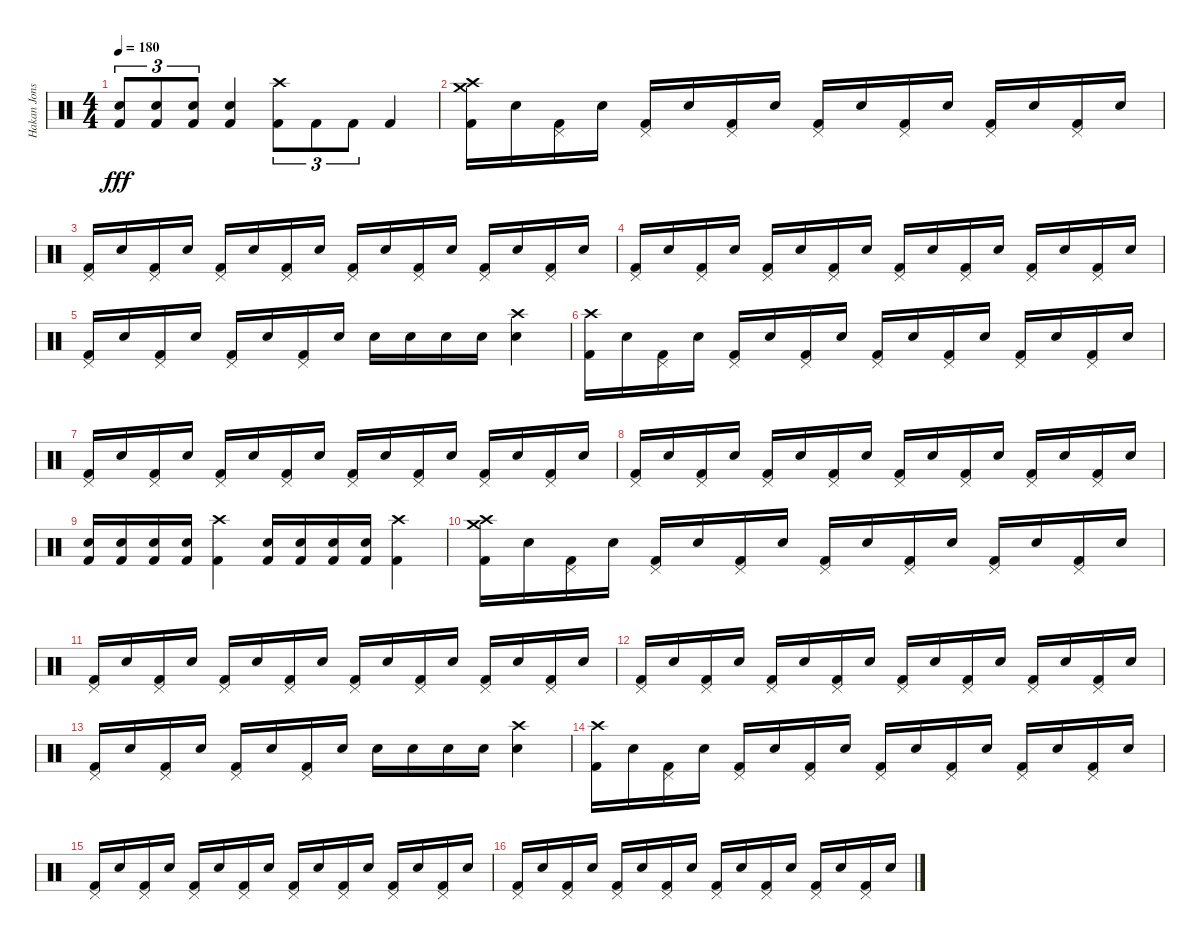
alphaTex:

\track ("Hakan Jonsson" "Hakan Jons") {instrument percussion}
\staff {score}
\articulation defaults
\ts (4 4)
\tempo 180
\clef neutral
\ks c
("Electric Snare (hit)" "Kick (hit) 2").8{tu (3 2) dy fff} ("Electric Snare (hit)" "Kick (hit) 2").8{tu (3 2)} ("Electric Snare (hit)" "Kick (hit) 2").8{tu (3 2)} ("Electric Snare (hit)" "Kick (hit) 2").4 ("Crash high (hit)" "Kick (hit) 2").8{tu (3 2)} "Kick (hit) 2".8{tu (3 2)} "Kick (hit) 2".8{tu (3 2)} "Kick (hit) 2".4 |
("Crash high (hit)" "Crash medium (hit)" "Kick (hit) 2").16 "Electric Snare (hit)".16 ("Pedal Hi-Hat (hit)" "Kick (hit) 2").16 "Electric Snare (hit)".16 ("Pedal Hi-Hat (hit)" "Kick (hit) 2").16 "Electric Snare (hit)".16 ("Pedal Hi-Hat (hit)" "Kick (hit) 2").16 "Electric Snare (hit)".16 ("Pedal Hi-Hat (hit)" "Kick (hit) 2").16 "Electric Snare (hit)".16 ("Pedal Hi-Hat (hit)" "Kick (hit) 2").16 "Electric Snare (hit)".16 ("Pedal Hi-Hat (hit)" "Kick (hit) 2").16 "Electric Snare (hit)".16 ("Pedal Hi-Hat (hit)" "Kick (hit) 2").16 "Electric Snare (hit)".16 |
("Pedal Hi-Hat (hit)" "Kick (hit) 2").16 "Electric Snare (hit)".16 ("Pedal Hi-Hat (hit)" "Kick (hit) 2").16 "Electric Snare (hit)".16 ("Pedal Hi-Hat (hit)" "Kick (hit) 2").16 "Electric Snare (hit)".16 ("Pedal Hi-Hat (hit)" "Kick (hit) 2").16 "Electric Snare (hit)".16 ("Pedal Hi-Hat (hit)" "Kick (hit) 2").16 "Electric Snare (hit)".16 ("Pedal Hi-Hat (hit)" "Kick (hit) 2").16 "Electric Snare (hit)".16 ("Pedal Hi-Hat (hit)" "Kick (hit) 2").16 "Electric Snare (hit)".16 ("Pedal Hi-Hat (hit)" "Kick (hit) 2").16 "Electric Snare (hit)".16 |
("Pedal Hi-Hat (hit)" "Kick (hit) 2").16 "Electric Snare (hit)".16 ("Pedal Hi-Hat (hit)" "Kick (hit) 2").16 "Electric Snare (hit)".16 ("Pedal Hi-Hat (hit)" "Kick (hit) 2").16 "Electric Snare (hit)".16 ("Pedal Hi-Hat (hit)" "Kick (hit) 2").16 "Electric Snare (hit)".16 ("Pedal Hi-Hat (hit)" "Kick (hit) 2").16 "Electric Snare (hit)".16 ("Pedal Hi-Hat (hit)" "Kick (hit) 2").16 "Electric Snare (hit)".16 ("Pedal Hi-Hat (hit)" "Kick (hit) 2").16 "Electric Snare (hit)".16 ("Pedal Hi-Hat (hit)" "Kick (hit) 2").16 "Electric Snare (hit)".16 |
("Pedal Hi-Hat (hit)" "Kick (hit) 2").16 "Electric Snare (hit)".16 ("Pedal Hi-Hat (hit)" "Kick (hit) 2").16 "Electric Snare (hit)".16 ("Pedal Hi-Hat (hit)" "Kick (hit) 2").16 "Electric Snare (hit)".16 ("Pedal Hi-Hat (hit)" "Kick (hit) 2").16 "Electric Snare (hit)".16 "Electric Snare (hit)".16 "Electric Snare (hit)".16 "Electric Snare (hit)".16 "Electric Snare (hit)".16 ("Crash high (hit)" "Electric Snare (hit)").4 |
("Crash high (hit)" "Kick (hit) 2").16 "Electric Snare (hit)".16 ("Pedal Hi-Hat (hit)" "Kick (hit) 2").16 "Electric Snare (hit)".16 ("Pedal Hi-Hat (hit)" "Kick (hit) 2").16 "Electric Snare (hit)".16 ("Pedal Hi-Hat (hit)" "Kick (hit) 2").16 "Electric Snare (hit)".16 ("Pedal Hi-Hat (hit)" "Kick (hit) 2").16 "Electric Snare (hit)".16 ("Pedal Hi-Hat (hit)" "Kick (hit) 2").16 "Electric Snare (hit)".16 ("Pedal Hi-Hat (hit)" "Kick (hit) 2").16 "Electric Snare (hit)".16 ("Pedal Hi-Hat (hit)" "Kick (hit) 2").16 "Electric Snare (hit)".16 |
("Pedal Hi-Hat (hit)" "Kick (hit) 2").16 "Electric Snare (hit)".16 ("Pedal Hi-Hat (hit)" "Kick (hit) 2").16 "Electric Snare (hit)".16 ("Pedal Hi-Hat (hit)" "Kick (hit) 2").16 "Electric Snare (hit)".16 ("Pedal Hi-Hat (hit)" "Kick (hit) 2").16 "Electric Snare (hit)".16 ("Pedal Hi-Hat (hit)" "Kick (hit) 2").16 "Electric Snare (hit)".16 ("Pedal Hi-Hat (hit)" "Kick (hit) 2").16 "Electric Snare (hit)".16 ("Pedal Hi-Hat (hit)" "Kick (hit) 2").16 "Electric Snare (hit)".16 ("Pedal Hi-Hat (hit)" "Kick (hit) 2").16 "Electric Snare (hit)".16 |
("Pedal Hi-Hat (hit)" "Kick (hit) 2").16 "Electric Snare (hit)".16 ("Pedal Hi-Hat (hit)" "Kick (hit) 2").16 "Electric Snare (hit)".16 ("Pedal Hi-Hat (hit)" "Kick (hit) 2").16 "Electric Snare (hit)".16 ("Pedal Hi-Hat (hit)" "Kick (hit) 2").16 "Electric Snare (hit)".16 ("Pedal Hi-Hat (hit)" "Kick (hit) 2").16 "Electric Snare (hit)".16 ("Pedal Hi-Hat (hit)" "Kick (hit) 2").16 "Electric Snare (hit)".16 ("Pedal Hi-Hat (hit)" "Kick (hit) 2").16 "Electric Snare (hit)".16 ("Pedal Hi-Hat (hit)" "Kick (hit) 2").16 "Electric Snare (hit)".16 |
("Electric Snare (hit)" "Kick (hit) 2").16 ("Electric Snare (hit)" "Kick (hit) 2").16 ("Electric Snare (hit)" "Kick (hit) 2").16 ("Electric Snare (hit)" "Kick (hit) 2").16 ("Crash high (hit)" "Kick (hit) 2").4 ("Electric Snare (hit)" "Kick (hit) 2").16 ("Electric Snare (hit)" "Kick (hit) 2").16 ("Electric Snare (hit)" "Kick (hit) 2").16 ("Electric Snare (hit)" "Kick (hit) 2").16 ("Crash high (hit)" "Kick (hit) 2").4 |
("Crash high (hit)" "Crash medium (hit)" "Kick (hit) 2").16 "Electric Snare (hit)".16 ("Pedal Hi-Hat (hit)" "Kick (hit) 2").16 "Electric Snare (hit)".16 ("Pedal Hi-Hat (hit)" "Kick (hit) 2").16 "Electric Snare (hit)".16 ("Pedal Hi-Hat (hit)" "Kick (hit) 2").16 "Electric Snare (hit)".16 ("Pedal Hi-Hat (hit)" "Kick (hit) 2").16 "Electric Snare (hit)".16 ("Pedal Hi-Hat (hit)" "Kick (hit) 2").16 "Electric Snare (hit)".16 ("Pedal Hi-Hat (hit)" "Kick (hit) 2").16 "Electric Snare (hit)".16 ("Pedal Hi-Hat (hit)" "Kick (hit) 2").16 "Electric Snare (hit)".16 |
("Pedal Hi-Hat (hit)" "Kick (hit) 2").16 "Electric Snare (hit)".16 ("Pedal Hi-Hat (hit)" "Kick (hit) 2").16 "Electric Snare (hit)".16 ("Pedal Hi-Hat (hit)" "Kick (hit) 2").16 "Electric Snare (hit)".16 ("Pedal Hi-Hat (hit)" "Kick (hit) 2").16 "Electric Snare (hit)".16 ("Pedal Hi-Hat (hit)" "Kick (hit) 2").16 "Electric Snare (hit)".16 ("Pedal Hi-Hat (hit)" "Kick (hit) 2").16 "Electric Snare (hit)".16 ("Pedal Hi-Hat (hit)" "Kick (hit) 2").16 "Electric Snare (hit)".16 ("Pedal Hi-Hat (hit)" "Kick (hit) 2").16 "Electric Snare (hit)".16 |
("Pedal Hi-Hat (hit)" "Kick (hit) 2").16 "Electric Snare (hit)".16 ("Pedal Hi-Hat (hit)" "Kick (hit) 2").16 "Electric Snare (hit)".16 ("Pedal Hi-Hat (hit)" "Kick (hit) 2").16 "Electric Snare (hit)".16 ("Pedal Hi-Hat (hit)" "Kick (hit) 2").16 "Electric Snare (hit)".16 ("Pedal Hi-Hat (hit)" "Kick (hit) 2").16 "Electric Snare (hit)".16 ("Pedal Hi-Hat (hit)" "Kick (hit) 2").16 "Electric Snare (hit)".16 ("Pedal Hi-Hat (hit)" "Kick (hit) 2").16 "Electric Snare (hit)".16 ("Pedal Hi-Hat (hit)" "Kick (hit) 2").16 "Electric Snare (hit)".16 |
("Pedal Hi-Hat (hit)" "Kick (hit) 2").16 "Electric Snare (hit)".16 ("Pedal Hi-Hat (hit)" "Kick (hit) 2").16 "Electric Snare (hit)".16 ("Pedal Hi-Hat (hit)" "Kick (hit) 2").16 "Electric Snare (hit)".16 ("Pedal Hi-Hat (hit)" "Kick (hit) 2").16 "Electric Snare (hit)".16 "Electric Snare (hit)".16 "Electric Snare (hit)".16 "Electric Snare (hit)".16 "Electric Snare (hit)".16 ("Crash high (hit)" "Electric Snare (hit)").4 |
("Crash high (hit)" "Kick (hit) 2").16 "Electric Snare (hit)".16 ("Pedal Hi-Hat (hit)" "Kick (hit) 2").16 "Electric Snare (hit)".16 ("Pedal Hi-Hat (hit)" "Kick (hit) 2").16 "Electric Snare (hit)".16 ("Pedal Hi-Hat (hit)" "Kick (hit) 2").16 "Electric Snare (hit)".16 ("Pedal Hi-Hat (hit)" "Kick (hit) 2").16 "Electric Snare (hit)".16 ("Pedal Hi-Hat (hit)" "Kick (hit) 2").16 "Electric Snare (hit)".16 ("Pedal Hi-Hat (hit)" "Kick (hit) 2").16 "Electric Snare (hit)".16 ("Pedal Hi-Hat (hit)" "Kick (hit) 2").16 "Electric Snare (hit)".16 |
("Pedal Hi-Hat (hit)" "Kick (hit) 2").16 "Electric Snare (hit)".16 ("Pedal Hi-Hat (hit)" "Kick (hit) 2").16 "Electric Snare (hit)".16 ("Pedal Hi-Hat (hit)" "Kick (hit) 2").16 "Electric Snare (hit)".16 ("Pedal Hi-Hat (hit)" "Kick (hit) 2").16 "Electric Snare (hit)".16 ("Pedal Hi-Hat (hit)" "Kick (hit) 2").16 "Electric Snare (hit)".16 ("Pedal Hi-Hat (hit)" "Kick (hit) 2").16 "Electric Snare (hit)".16 ("Pedal Hi-Hat (hit)" "Kick (hit) 2").16 "Electric Snare (hit)".16 ("Pedal Hi-Hat (hit)" "Kick (hit) 2").16 "Electric Snare (hit)".16 |
("Pedal Hi-Hat (hit)" "Kick (hit) 2").16 "Electric Snare (hit)".16 ("Pedal Hi-Hat (hit)" "Kick (hit) 2").16 "Electric Snare (hit)".16 ("Pedal Hi-Hat (hit)" "Kick (hit) 2").16 "Electric Snare (hit)".16 ("Pedal Hi-Hat (hit)" "Kick (hit) 2").16 "Electric Snare (hit)".16 ("Pedal Hi-Hat (hit)" "Kick (hit) 2").16 "Electric Snare (hit)".16 ("Pedal Hi-Hat (hit)" "Kick (hit) 2").16 "Electric Snare (hit)".16 ("Pedal Hi-Hat (hit)" "Kick (hit) 2").16 "Electric Snare (hit)".16 ("Pedal Hi-Hat (hit)" "Kick (hit) 2").16 "Electric Snare (hit)".16
